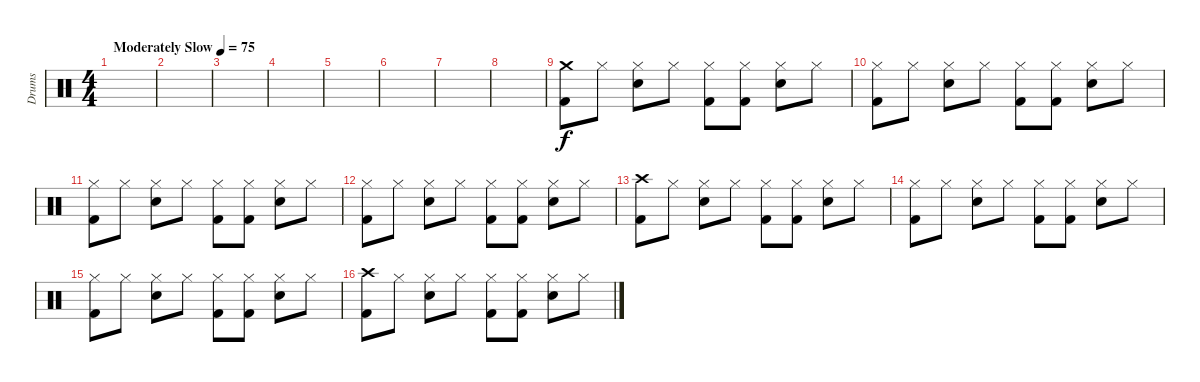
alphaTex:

\track ("Drums" "Drums") {instrument percussion}
\staff {score}
\articulation defaults
\ts (4 4)
\tempo (75 "Moderately Slow")
\clef neutral
\ks c
|
|
|
|
|
|
|
|
("Crash medium (hit)" "Kick (hit) 2").8 "Hi-Hat (closed)".8 ("Hi-Hat (closed)" "Snare (hit) 2").8 "Hi-Hat (closed)".8 ("Hi-Hat (closed)" "Kick (hit) 2").8 ("Hi-Hat (closed)" "Kick (hit) 2").8 ("Hi-Hat (closed)" "Snare (hit) 2").8 "Hi-Hat (closed)".8 |
("Hi-Hat (closed)" "Kick (hit) 2").8 "Hi-Hat (closed)".8 ("Hi-Hat (closed)" "Snare (hit) 2").8 "Hi-Hat (closed)".8 ("Hi-Hat (closed)" "Kick (hit) 2").8 ("Hi-Hat (closed)" "Kick (hit) 2").8 ("Hi-Hat (closed)" "Snare (hit) 2").8 "Hi-Hat (closed)".8 |
("Hi-Hat (closed)" "Kick (hit) 2").8 "Hi-Hat (closed)".8 ("Hi-Hat (closed)" "Snare (hit) 2").8 "Hi-Hat (closed)".8 ("Hi-Hat (closed)" "Kick (hit) 2").8 ("Hi-Hat (closed)" "Kick (hit) 2").8 ("Hi-Hat (closed)" "Snare (hit) 2").8 "Hi-Hat (closed)".8 |
("Hi-Hat (closed)" "Kick (hit) 2").8 "Hi-Hat (closed)".8 ("Hi-Hat (closed)" "Snare (hit) 2").8 "Hi-Hat (closed)".8 ("Hi-Hat (closed)" "Kick (hit) 2").8 ("Hi-Hat (closed)" "Kick (hit) 2").8 ("Hi-Hat (closed)" "Snare (hit) 2").8 "Hi-Hat (closed)".8 |
("Crash high (hit)" "Kick (hit) 2").8 "Hi-Hat (closed)".8 ("Hi-Hat (closed)" "Snare (hit) 2").8 "Hi-Hat (closed)".8 ("Hi-Hat (closed)" "Kick (hit) 2").8 ("Hi-Hat (closed)" "Kick (hit) 2").8 ("Hi-Hat (closed)" "Snare (hit) 2").8 "Hi-Hat (closed)".8 |
("Hi-Hat (closed)" "Kick (hit) 2").8 "Hi-Hat (closed)".8 ("Hi-Hat (closed)" "Snare (hit) 2").8 "Hi-Hat (closed)".8 ("Hi-Hat (closed)" "Kick (hit) 2").8 ("Hi-Hat (closed)" "Kick (hit) 2").8 ("Hi-Hat (closed)" "Snare (hit) 2").8 "Hi-Hat (closed)".8 |
("Hi-Hat (closed)" "Kick (hit) 2").8 "Hi-Hat (closed)".8 ("Hi-Hat (closed)" "Snare (hit) 2").8 "Hi-Hat (closed)".8 ("Hi-Hat (closed)" "Kick (hit) 2").8 ("Hi-Hat (closed)" "Kick (hit) 2").8 ("Hi-Hat (closed)" "Snare (hit) 2").8 "Hi-Hat (closed)".8 |
("Crash high (hit)" "Kick (hit) 2").8 "Hi-Hat (closed)".8 ("Hi-Hat (closed)" "Snare (hit) 2").8 "Hi-Hat (closed)".8 ("Hi-Hat (closed)" "Kick (hit) 2").8 ("Hi-Hat (closed)" "Kick (hit) 2").8 ("Hi-Hat (closed)" "Snare (hit) 2").8 "Hi-Hat (closed)".8
